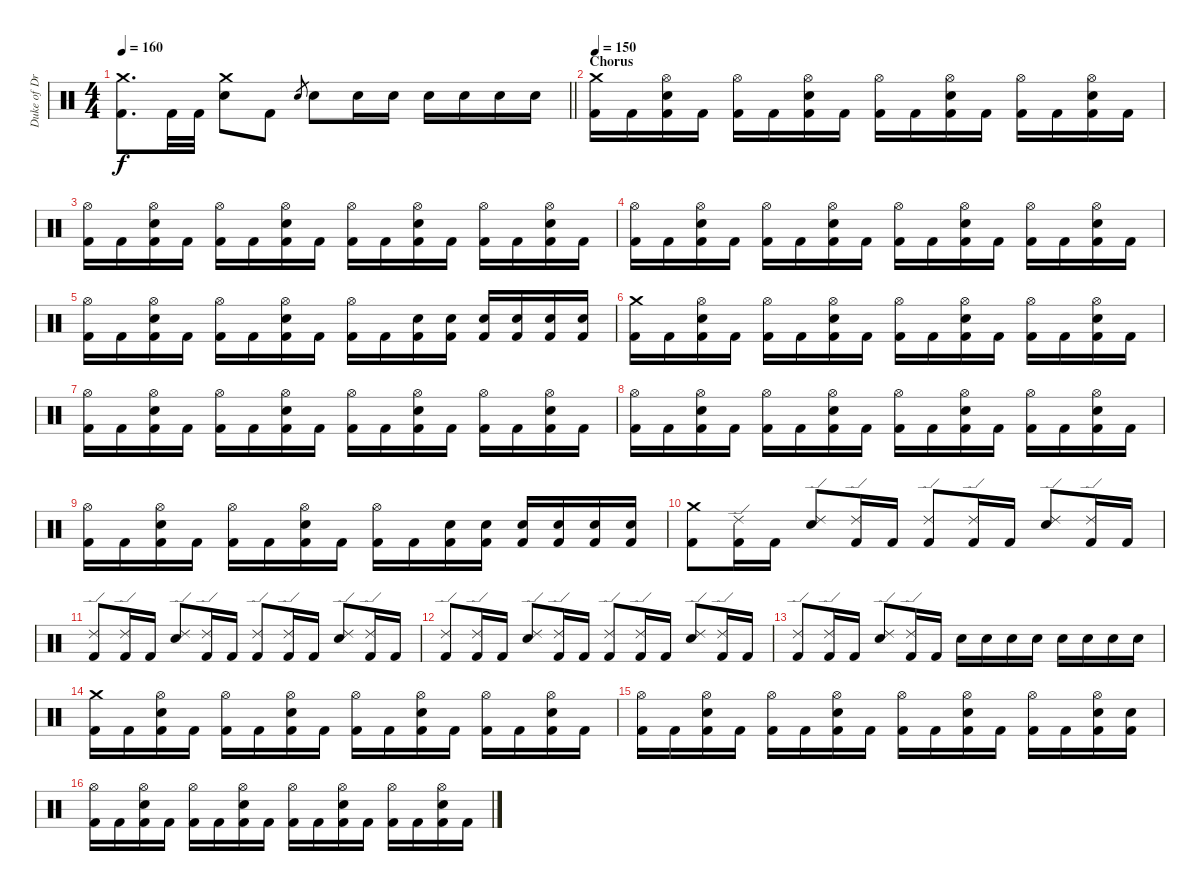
\track ("Duke of Drumington" "Duke of Dr") {instrument percussion}
\staff {score}
\articulation defaults
\ts (4 4)
\tempo 160
\clef neutral
\barLineRight lightlight
\ks c
("Crash medium (hit)" "Kick (hit) 2").8{d dy f} "Kick (hit) 2".32 "Kick (hit) 2".32 ("Crash medium (hit)" "Electric Snare (hit)").8 "Kick (hit) 2".8 "Electric Snare (hit)".8{gr} "Electric Snare (hit)".8 "Electric Snare (hit)".16 "Electric Snare (hit)".16 "Electric Snare (hit)".16 "Electric Snare (hit)".16 "Electric Snare (hit)".16 "Electric Snare (hit)".16 |
\section ("" "Chorus")
\tempo 150
("Crash medium (hit)" "Kick (hit) 2").16 "Kick (hit) 2".16 ("Hi-Hat (open)" "Electric Snare (hit)" "Kick (hit) 2").16 "Kick (hit) 2".16 ("Hi-Hat (open)" "Kick (hit) 2").16 "Kick (hit) 2".16 ("Hi-Hat (open)" "Electric Snare (hit)" "Kick (hit) 2").16 "Kick (hit) 2".16 ("Hi-Hat (open)" "Kick (hit) 2").16 "Kick (hit) 2".16 ("Hi-Hat (open)" "Electric Snare (hit)" "Kick (hit) 2").16 "Kick (hit) 2".16 ("Hi-Hat (open)" "Kick (hit) 2").16 "Kick (hit) 2".16 ("Hi-Hat (open)" "Electric Snare (hit)" "Kick (hit) 2").16 "Kick (hit) 2".16 |
("Hi-Hat (open)" "Kick (hit) 2").16 "Kick (hit) 2".16 ("Hi-Hat (open)" "Electric Snare (hit)" "Kick (hit) 2").16 "Kick (hit) 2".16 ("Hi-Hat (open)" "Kick (hit) 2").16 "Kick (hit) 2".16 ("Hi-Hat (open)" "Electric Snare (hit)" "Kick (hit) 2").16 "Kick (hit) 2".16 ("Hi-Hat (open)" "Kick (hit) 2").16 "Kick (hit) 2".16 ("Hi-Hat (open)" "Electric Snare (hit)" "Kick (hit) 2").16 "Kick (hit) 2".16 ("Hi-Hat (open)" "Kick (hit) 2").16 "Kick (hit) 2".16 ("Hi-Hat (open)" "Electric Snare (hit)" "Kick (hit) 2").16 "Kick (hit) 2".16 |
("Hi-Hat (open)" "Kick (hit) 2").16 "Kick (hit) 2".16 ("Hi-Hat (open)" "Electric Snare (hit)" "Kick (hit) 2").16 "Kick (hit) 2".16 ("Hi-Hat (open)" "Kick (hit) 2").16 "Kick (hit) 2".16 ("Hi-Hat (open)" "Electric Snare (hit)" "Kick (hit) 2").16 "Kick (hit) 2".16 ("Hi-Hat (open)" "Kick (hit) 2").16 "Kick (hit) 2".16 ("Hi-Hat (open)" "Electric Snare (hit)" "Kick (hit) 2").16 "Kick (hit) 2".16 ("Hi-Hat (open)" "Kick (hit) 2").16 "Kick (hit) 2".16 ("Hi-Hat (open)" "Electric Snare (hit)" "Kick (hit) 2").16 "Kick (hit) 2".16 |
("Hi-Hat (open)" "Kick (hit) 2").16 "Kick (hit) 2".16 ("Hi-Hat (open)" "Electric Snare (hit)" "Kick (hit) 2").16 "Kick (hit) 2".16 ("Hi-Hat (open)" "Kick (hit) 2").16 "Kick (hit) 2".16 ("Hi-Hat (open)" "Electric Snare (hit)" "Kick (hit) 2").16 "Kick (hit) 2".16 ("Hi-Hat (open)" "Kick (hit) 2").16 "Kick (hit) 2".16 ("Electric Snare (hit)" "Kick (hit) 2").16 ("Electric Snare (hit)" "Kick (hit) 2").16 ("Electric Snare (hit)" "Kick (hit) 2").16 ("Electric Snare (hit)" "Kick (hit) 2").16 ("Electric Snare (hit)" "Kick (hit) 2").16 ("Electric Snare (hit)" "Kick (hit) 2").16 |
("Crash medium (hit)" "Kick (hit) 2").16 "Kick (hit) 2".16 ("Hi-Hat (open)" "Electric Snare (hit)" "Kick (hit) 2").16 "Kick (hit) 2".16 ("Hi-Hat (open)" "Kick (hit) 2").16 "Kick (hit) 2".16 ("Hi-Hat (open)" "Electric Snare (hit)" "Kick (hit) 2").16 "Kick (hit) 2".16 ("Hi-Hat (open)" "Kick (hit) 2").16 "Kick (hit) 2".16 ("Hi-Hat (open)" "Electric Snare (hit)" "Kick (hit) 2").16 "Kick (hit) 2".16 ("Hi-Hat (open)" "Kick (hit) 2").16 "Kick (hit) 2".16 ("Hi-Hat (open)" "Electric Snare (hit)" "Kick (hit) 2").16 "Kick (hit) 2".16 |
("Hi-Hat (open)" "Kick (hit) 2").16 "Kick (hit) 2".16 ("Hi-Hat (open)" "Electric Snare (hit)" "Kick (hit) 2").16 "Kick (hit) 2".16 ("Hi-Hat (open)" "Kick (hit) 2").16 "Kick (hit) 2".16 ("Hi-Hat (open)" "Electric Snare (hit)" "Kick (hit) 2").16 "Kick (hit) 2".16 ("Hi-Hat (open)" "Kick (hit) 2").16 "Kick (hit) 2".16 ("Hi-Hat (open)" "Electric Snare (hit)" "Kick (hit) 2").16 "Kick (hit) 2".16 ("Hi-Hat (open)" "Kick (hit) 2").16 "Kick (hit) 2".16 ("Hi-Hat (open)" "Electric Snare (hit)" "Kick (hit) 2").16 "Kick (hit) 2".16 |
("Hi-Hat (open)" "Kick (hit) 2").16 "Kick (hit) 2".16 ("Hi-Hat (open)" "Electric Snare (hit)" "Kick (hit) 2").16 "Kick (hit) 2".16 ("Hi-Hat (open)" "Kick (hit) 2").16 "Kick (hit) 2".16 ("Hi-Hat (open)" "Electric Snare (hit)" "Kick (hit) 2").16 "Kick (hit) 2".16 ("Hi-Hat (open)" "Kick (hit) 2").16 "Kick (hit) 2".16 ("Hi-Hat (open)" "Electric Snare (hit)" "Kick (hit) 2").16 "Kick (hit) 2".16 ("Hi-Hat (open)" "Kick (hit) 2").16 "Kick (hit) 2".16 ("Hi-Hat (open)" "Electric Snare (hit)" "Kick (hit) 2").16 "Kick (hit) 2".16 |
("Hi-Hat (open)" "Kick (hit) 2").16 "Kick (hit) 2".16 ("Hi-Hat (open)" "Electric Snare (hit)" "Kick (hit) 2").16 "Kick (hit) 2".16 ("Hi-Hat (open)" "Kick (hit) 2").16 "Kick (hit) 2".16 ("Hi-Hat (open)" "Electric Snare (hit)" "Kick (hit) 2").16 "Kick (hit) 2".16 ("Hi-Hat (open)" "Kick (hit) 2").16 "Kick (hit) 2".16 ("Electric Snare (hit)" "Kick (hit) 2").16 ("Electric Snare (hit)" "Kick (hit) 2").16 ("Electric Snare (hit)" "Kick (hit) 2").16 ("Electric Snare (hit)" "Kick (hit) 2").16 ("Electric Snare (hit)" "Kick (hit) 2").16 ("Electric Snare (hit)" "Kick (hit) 2").16 |
("Crash medium (hit)" "Kick (hit) 2").8 ("Ride (edge) 2" "Kick (hit) 2").16 "Kick (hit) 2".16 ("Ride (edge) 2" "Electric Snare (hit)").8 ("Ride (edge) 2" "Kick (hit) 2").16 "Kick (hit) 2".16 ("Ride (edge) 2" "Kick (hit) 2").8 ("Ride (edge) 2" "Kick (hit) 2").16 "Kick (hit) 2".16 ("Ride (edge) 2" "Electric Snare (hit)").8 ("Ride (edge) 2" "Kick (hit) 2").16 "Kick (hit) 2".16 |
("Ride (edge) 2" "Kick (hit) 2").8 ("Ride (edge) 2" "Kick (hit) 2").16 "Kick (hit) 2".16 ("Ride (edge) 2" "Electric Snare (hit)").8 ("Ride (edge) 2" "Kick (hit) 2").16 "Kick (hit) 2".16 ("Ride (edge) 2" "Kick (hit) 2").8 ("Ride (edge) 2" "Kick (hit) 2").16 "Kick (hit) 2".16 ("Ride (edge) 2" "Electric Snare (hit)").8 ("Ride (edge) 2" "Kick (hit) 2").16 "Kick (hit) 2".16 |
("Ride (edge) 2" "Kick (hit) 2").8 ("Ride (edge) 2" "Kick (hit) 2").16 "Kick (hit) 2".16 ("Ride (edge) 2" "Electric Snare (hit)").8 ("Ride (edge) 2" "Kick (hit) 2").16 "Kick (hit) 2".16 ("Ride (edge) 2" "Kick (hit) 2").8 ("Ride (edge) 2" "Kick (hit) 2").16 "Kick (hit) 2".16 ("Ride (edge) 2" "Electric Snare (hit)").8 ("Ride (edge) 2" "Kick (hit) 2").16 "Kick (hit) 2".16 |
("Ride (edge) 2" "Kick (hit) 2").8 ("Ride (edge) 2" "Kick (hit) 2").16 "Kick (hit) 2".16 ("Ride (edge) 2" "Electric Snare (hit)").8 ("Ride (edge) 2" "Kick (hit) 2").16 "Kick (hit) 2".16 "Electric Snare (hit)".16 "Electric Snare (hit)".16 "Electric Snare (hit)".16 "Electric Snare (hit)".16 "Electric Snare (hit)".16 "Electric Snare (hit)".16 "Electric Snare (hit)".16 "Electric Snare (hit)".16 |
("Crash medium (hit)" "Kick (hit) 2").16 "Kick (hit) 2".16 ("Hi-Hat (open)" "Electric Snare (hit)" "Kick (hit) 2").16 "Kick (hit) 2".16 ("Hi-Hat (open)" "Kick (hit) 2").16 "Kick (hit) 2".16 ("Hi-Hat (open)" "Electric Snare (hit)" "Kick (hit) 2").16 "Kick (hit) 2".16 ("Hi-Hat (open)" "Kick (hit) 2").16 "Kick (hit) 2".16 ("Hi-Hat (open)" "Electric Snare (hit)" "Kick (hit) 2").16 "Kick (hit) 2".16 ("Hi-Hat (open)" "Kick (hit) 2").16 "Kick (hit) 2".16 ("Hi-Hat (open)" "Electric Snare (hit)" "Kick (hit) 2").16 "Kick (hit) 2".16 |
("Hi-Hat (open)" "Kick (hit) 2").16 "Kick (hit) 2".16 ("Hi-Hat (open)" "Electric Snare (hit)" "Kick (hit) 2").16 "Kick (hit) 2".16 ("Hi-Hat (open)" "Kick (hit) 2").16 "Kick (hit) 2".16 ("Hi-Hat (open)" "Electric Snare (hit)" "Kick (hit) 2").16 "Kick (hit) 2".16 ("Hi-Hat (open)" "Kick (hit) 2").16 "Kick (hit) 2".16 ("Hi-Hat (open)" "Electric Snare (hit)" "Kick (hit) 2").16 "Kick (hit) 2".16 ("Hi-Hat (open)" "Kick (hit) 2").16 "Kick (hit) 2".16 ("Hi-Hat (open)" "Electric Snare (hit)" "Kick (hit) 2").16 ("Electric Snare (hit)" "Kick (hit) 2").16 |
("Hi-Hat (open)" "Kick (hit) 2").16 "Kick (hit) 2".16 ("Hi-Hat (open)" "Electric Snare (hit)" "Kick (hit) 2").16 "Kick (hit) 2".16 ("Hi-Hat (open)" "Kick (hit) 2").16 "Kick (hit) 2".16 ("Hi-Hat (open)" "Electric Snare (hit)" "Kick (hit) 2").16 "Kick (hit) 2".16 ("Hi-Hat (open)" "Kick (hit) 2").16 "Kick (hit) 2".16 ("Hi-Hat (open)" "Electric Snare (hit)" "Kick (hit) 2").16 "Kick (hit) 2".16 ("Hi-Hat (open)" "Kick (hit) 2").16 "Kick (hit) 2".16 ("Hi-Hat (open)" "Electric Snare (hit)" "Kick (hit) 2").16 "Kick (hit) 2".16
